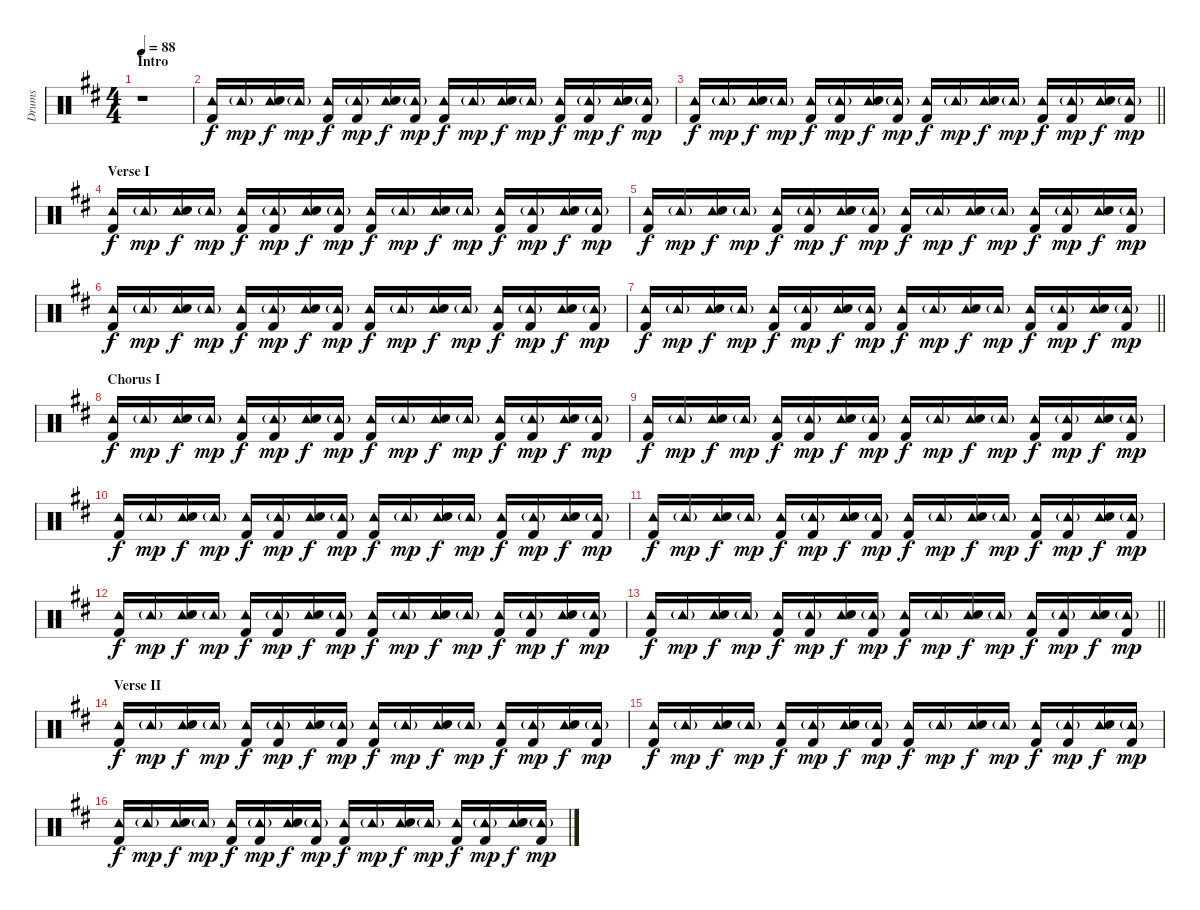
\track ("Drums" "Drums") {instrument percussion}
\staff {score}
\articulation defaults
\ts (4 4)
\section ("" "Intro")
\tempo 88
\clef neutral
\ks d
r.1{dy f} |
("Tambourine (hit)" "Kick (hit) 2").16 "Tambourine (hit)"{g}.16{dy mp} ("Tambourine (hit)" "Snare (hit) 2").16{dy f} "Tambourine (hit)"{g}.16{dy mp} ("Tambourine (hit)" "Kick (hit) 2").16{dy f} ("Tambourine (hit)"{g} "Kick (hit) 2").16{dy mp} ("Tambourine (hit)" "Snare (hit) 2").16{dy f} ("Tambourine (hit)"{g} "Kick (hit) 2").16{dy mp} ("Tambourine (hit)" "Kick (hit) 2").16{dy f} "Tambourine (hit)"{g}.16{dy mp} ("Tambourine (hit)" "Snare (hit) 2").16{dy f} "Tambourine (hit)"{g}.16{dy mp} ("Tambourine (hit)" "Kick (hit) 2").16{dy f} ("Tambourine (hit)"{g} "Kick (hit) 2").16{dy mp} ("Tambourine (hit)" "Snare (hit) 2").16{dy f} ("Tambourine (hit)"{g} "Kick (hit) 2").16{dy mp} |
\barLineRight lightlight
("Tambourine (hit)" "Kick (hit) 2").16{dy f} "Tambourine (hit)"{g}.16{dy mp} ("Tambourine (hit)" "Snare (hit) 2").16{dy f} "Tambourine (hit)"{g}.16{dy mp} ("Tambourine (hit)" "Kick (hit) 2").16{dy f} ("Tambourine (hit)"{g} "Kick (hit) 2").16{dy mp} ("Tambourine (hit)" "Snare (hit) 2").16{dy f} ("Tambourine (hit)"{g} "Kick (hit) 2").16{dy mp} ("Tambourine (hit)" "Kick (hit) 2").16{dy f} "Tambourine (hit)"{g}.16{dy mp} ("Tambourine (hit)" "Snare (hit) 2").16{dy f} "Tambourine (hit)"{g}.16{dy mp} ("Tambourine (hit)" "Kick (hit) 2").16{dy f} ("Tambourine (hit)"{g} "Kick (hit) 2").16{dy mp} ("Tambourine (hit)" "Snare (hit) 2").16{dy f} ("Tambourine (hit)"{g} "Kick (hit) 2").16{dy mp} |
\section ("" "Verse I")
("Tambourine (hit)" "Kick (hit) 2").16{dy f} "Tambourine (hit)"{g}.16{dy mp} ("Tambourine (hit)" "Snare (hit) 2").16{dy f} "Tambourine (hit)"{g}.16{dy mp} ("Tambourine (hit)" "Kick (hit) 2").16{dy f} ("Tambourine (hit)"{g} "Kick (hit) 2").16{dy mp} ("Tambourine (hit)" "Snare (hit) 2").16{dy f} ("Tambourine (hit)"{g} "Kick (hit) 2").16{dy mp} ("Tambourine (hit)" "Kick (hit) 2").16{dy f} "Tambourine (hit)"{g}.16{dy mp} ("Tambourine (hit)" "Snare (hit) 2").16{dy f} "Tambourine (hit)"{g}.16{dy mp} ("Tambourine (hit)" "Kick (hit) 2").16{dy f} ("Tambourine (hit)"{g} "Kick (hit) 2").16{dy mp} ("Tambourine (hit)" "Snare (hit) 2").16{dy f} ("Tambourine (hit)"{g} "Kick (hit) 2").16{dy mp} |
("Tambourine (hit)" "Kick (hit) 2").16{dy f} "Tambourine (hit)"{g}.16{dy mp} ("Tambourine (hit)" "Snare (hit) 2").16{dy f} "Tambourine (hit)"{g}.16{dy mp} ("Tambourine (hit)" "Kick (hit) 2").16{dy f} ("Tambourine (hit)"{g} "Kick (hit) 2").16{dy mp} ("Tambourine (hit)" "Snare (hit) 2").16{dy f} ("Tambourine (hit)"{g} "Kick (hit) 2").16{dy mp} ("Tambourine (hit)" "Kick (hit) 2").16{dy f} "Tambourine (hit)"{g}.16{dy mp} ("Tambourine (hit)" "Snare (hit) 2").16{dy f} "Tambourine (hit)"{g}.16{dy mp} ("Tambourine (hit)" "Kick (hit) 2").16{dy f} ("Tambourine (hit)"{g} "Kick (hit) 2").16{dy mp} ("Tambourine (hit)" "Snare (hit) 2").16{dy f} ("Tambourine (hit)"{g} "Kick (hit) 2").16{dy mp} |
("Tambourine (hit)" "Kick (hit) 2").16{dy f} "Tambourine (hit)"{g}.16{dy mp} ("Tambourine (hit)" "Snare (hit) 2").16{dy f} "Tambourine (hit)"{g}.16{dy mp} ("Tambourine (hit)" "Kick (hit) 2").16{dy f} ("Tambourine (hit)"{g} "Kick (hit) 2").16{dy mp} ("Tambourine (hit)" "Snare (hit) 2").16{dy f} ("Tambourine (hit)"{g} "Kick (hit) 2").16{dy mp} ("Tambourine (hit)" "Kick (hit) 2").16{dy f} "Tambourine (hit)"{g}.16{dy mp} ("Tambourine (hit)" "Snare (hit) 2").16{dy f} "Tambourine (hit)"{g}.16{dy mp} ("Tambourine (hit)" "Kick (hit) 2").16{dy f} ("Tambourine (hit)"{g} "Kick (hit) 2").16{dy mp} ("Tambourine (hit)" "Snare (hit) 2").16{dy f} ("Tambourine (hit)"{g} "Kick (hit) 2").16{dy mp} |
\barLineRight lightlight
("Tambourine (hit)" "Kick (hit) 2").16{dy f} "Tambourine (hit)"{g}.16{dy mp} ("Tambourine (hit)" "Snare (hit) 2").16{dy f} "Tambourine (hit)"{g}.16{dy mp} ("Tambourine (hit)" "Kick (hit) 2").16{dy f} ("Tambourine (hit)"{g} "Kick (hit) 2").16{dy mp} ("Tambourine (hit)" "Snare (hit) 2").16{dy f} ("Tambourine (hit)"{g} "Kick (hit) 2").16{dy mp} ("Tambourine (hit)" "Kick (hit) 2").16{dy f} "Tambourine (hit)"{g}.16{dy mp} ("Tambourine (hit)" "Snare (hit) 2").16{dy f} "Tambourine (hit)"{g}.16{dy mp} ("Tambourine (hit)" "Kick (hit) 2").16{dy f} ("Tambourine (hit)"{g} "Kick (hit) 2").16{dy mp} ("Tambourine (hit)" "Snare (hit) 2").16{dy f} ("Tambourine (hit)"{g} "Kick (hit) 2").16{dy mp} |
\section ("" "Chorus I")
("Tambourine (hit)" "Kick (hit) 2").16{dy f} "Tambourine (hit)"{g}.16{dy mp} ("Tambourine (hit)" "Snare (hit) 2").16{dy f} "Tambourine (hit)"{g}.16{dy mp} ("Tambourine (hit)" "Kick (hit) 2").16{dy f} ("Tambourine (hit)"{g} "Kick (hit) 2").16{dy mp} ("Tambourine (hit)" "Snare (hit) 2").16{dy f} ("Tambourine (hit)"{g} "Kick (hit) 2").16{dy mp} ("Tambourine (hit)" "Kick (hit) 2").16{dy f} "Tambourine (hit)"{g}.16{dy mp} ("Tambourine (hit)" "Snare (hit) 2").16{dy f} "Tambourine (hit)"{g}.16{dy mp} ("Tambourine (hit)" "Kick (hit) 2").16{dy f} ("Tambourine (hit)"{g} "Kick (hit) 2").16{dy mp} ("Tambourine (hit)" "Snare (hit) 2").16{dy f} ("Tambourine (hit)"{g} "Kick (hit) 2").16{dy mp} |
("Tambourine (hit)" "Kick (hit) 2").16{dy f} "Tambourine (hit)"{g}.16{dy mp} ("Tambourine (hit)" "Snare (hit) 2").16{dy f} "Tambourine (hit)"{g}.16{dy mp} ("Tambourine (hit)" "Kick (hit) 2").16{dy f} ("Tambourine (hit)"{g} "Kick (hit) 2").16{dy mp} ("Tambourine (hit)" "Snare (hit) 2").16{dy f} ("Tambourine (hit)"{g} "Kick (hit) 2").16{dy mp} ("Tambourine (hit)" "Kick (hit) 2").16{dy f} "Tambourine (hit)"{g}.16{dy mp} ("Tambourine (hit)" "Snare (hit) 2").16{dy f} "Tambourine (hit)"{g}.16{dy mp} ("Tambourine (hit)" "Kick (hit) 2").16{dy f} ("Tambourine (hit)"{g} "Kick (hit) 2").16{dy mp} ("Tambourine (hit)" "Snare (hit) 2").16{dy f} ("Tambourine (hit)"{g} "Kick (hit) 2").16{dy mp} |
("Tambourine (hit)" "Kick (hit) 2").16{dy f} "Tambourine (hit)"{g}.16{dy mp} ("Tambourine (hit)" "Snare (hit) 2").16{dy f} "Tambourine (hit)"{g}.16{dy mp} ("Tambourine (hit)" "Kick (hit) 2").16{dy f} ("Tambourine (hit)"{g} "Kick (hit) 2").16{dy mp} ("Tambourine (hit)" "Snare (hit) 2").16{dy f} ("Tambourine (hit)"{g} "Kick (hit) 2").16{dy mp} ("Tambourine (hit)" "Kick (hit) 2").16{dy f} "Tambourine (hit)"{g}.16{dy mp} ("Tambourine (hit)" "Snare (hit) 2").16{dy f} "Tambourine (hit)"{g}.16{dy mp} ("Tambourine (hit)" "Kick (hit) 2").16{dy f} ("Tambourine (hit)"{g} "Kick (hit) 2").16{dy mp} ("Tambourine (hit)" "Snare (hit) 2").16{dy f} ("Tambourine (hit)"{g} "Kick (hit) 2").16{dy mp} |
("Tambourine (hit)" "Kick (hit) 2").16{dy f} "Tambourine (hit)"{g}.16{dy mp} ("Tambourine (hit)" "Snare (hit) 2").16{dy f} "Tambourine (hit)"{g}.16{dy mp} ("Tambourine (hit)" "Kick (hit) 2").16{dy f} ("Tambourine (hit)"{g} "Kick (hit) 2").16{dy mp} ("Tambourine (hit)" "Snare (hit) 2").16{dy f} ("Tambourine (hit)"{g} "Kick (hit) 2").16{dy mp} ("Tambourine (hit)" "Kick (hit) 2").16{dy f} "Tambourine (hit)"{g}.16{dy mp} ("Tambourine (hit)" "Snare (hit) 2").16{dy f} "Tambourine (hit)"{g}.16{dy mp} ("Tambourine (hit)" "Kick (hit) 2").16{dy f} ("Tambourine (hit)"{g} "Kick (hit) 2").16{dy mp} ("Tambourine (hit)" "Snare (hit) 2").16{dy f} ("Tambourine (hit)"{g} "Kick (hit) 2").16{dy mp} |
("Tambourine (hit)" "Kick (hit) 2").16{dy f} "Tambourine (hit)"{g}.16{dy mp} ("Tambourine (hit)" "Snare (hit) 2").16{dy f} "Tambourine (hit)"{g}.16{dy mp} ("Tambourine (hit)" "Kick (hit) 2").16{dy f} ("Tambourine (hit)"{g} "Kick (hit) 2").16{dy mp} ("Tambourine (hit)" "Snare (hit) 2").16{dy f} ("Tambourine (hit)"{g} "Kick (hit) 2").16{dy mp} ("Tambourine (hit)" "Kick (hit) 2").16{dy f} "Tambourine (hit)"{g}.16{dy mp} ("Tambourine (hit)" "Snare (hit) 2").16{dy f} "Tambourine (hit)"{g}.16{dy mp} ("Tambourine (hit)" "Kick (hit) 2").16{dy f} ("Tambourine (hit)"{g} "Kick (hit) 2").16{dy mp} ("Tambourine (hit)" "Snare (hit) 2").16{dy f} ("Tambourine (hit)"{g} "Kick (hit) 2").16{dy mp} |
\barLineRight lightlight
("Tambourine (hit)" "Kick (hit) 2").16{dy f} "Tambourine (hit)"{g}.16{dy mp} ("Tambourine (hit)" "Snare (hit) 2").16{dy f} "Tambourine (hit)"{g}.16{dy mp} ("Tambourine (hit)" "Kick (hit) 2").16{dy f} ("Tambourine (hit)"{g} "Kick (hit) 2").16{dy mp} ("Tambourine (hit)" "Snare (hit) 2").16{dy f} ("Tambourine (hit)"{g} "Kick (hit) 2").16{dy mp} ("Tambourine (hit)" "Kick (hit) 2").16{dy f} "Tambourine (hit)"{g}.16{dy mp} ("Tambourine (hit)" "Snare (hit) 2").16{dy f} "Tambourine (hit)"{g}.16{dy mp} ("Tambourine (hit)" "Kick (hit) 2").16{dy f} ("Tambourine (hit)"{g} "Kick (hit) 2").16{dy mp} ("Tambourine (hit)" "Snare (hit) 2").16{dy f} ("Tambourine (hit)"{g} "Kick (hit) 2").16{dy mp} |
\section ("" "Verse II")
("Tambourine (hit)" "Kick (hit) 2").16{dy f} "Tambourine (hit)"{g}.16{dy mp} ("Tambourine (hit)" "Snare (hit) 2").16{dy f} "Tambourine (hit)"{g}.16{dy mp} ("Tambourine (hit)" "Kick (hit) 2").16{dy f} ("Tambourine (hit)"{g} "Kick (hit) 2").16{dy mp} ("Tambourine (hit)" "Snare (hit) 2").16{dy f} ("Tambourine (hit)"{g} "Kick (hit) 2").16{dy mp} ("Tambourine (hit)" "Kick (hit) 2").16{dy f} "Tambourine (hit)"{g}.16{dy mp} ("Tambourine (hit)" "Snare (hit) 2").16{dy f} "Tambourine (hit)"{g}.16{dy mp} ("Tambourine (hit)" "Kick (hit) 2").16{dy f} ("Tambourine (hit)"{g} "Kick (hit) 2").16{dy mp} ("Tambourine (hit)" "Snare (hit) 2").16{dy f} ("Tambourine (hit)"{g} "Kick (hit) 2").16{dy mp} |
("Tambourine (hit)" "Kick (hit) 2").16{dy f} "Tambourine (hit)"{g}.16{dy mp} ("Tambourine (hit)" "Snare (hit) 2").16{dy f} "Tambourine (hit)"{g}.16{dy mp} ("Tambourine (hit)" "Kick (hit) 2").16{dy f} ("Tambourine (hit)"{g} "Kick (hit) 2").16{dy mp} ("Tambourine (hit)" "Snare (hit) 2").16{dy f} ("Tambourine (hit)"{g} "Kick (hit) 2").16{dy mp} ("Tambourine (hit)" "Kick (hit) 2").16{dy f} "Tambourine (hit)"{g}.16{dy mp} ("Tambourine (hit)" "Snare (hit) 2").16{dy f} "Tambourine (hit)"{g}.16{dy mp} ("Tambourine (hit)" "Kick (hit) 2").16{dy f} ("Tambourine (hit)"{g} "Kick (hit) 2").16{dy mp} ("Tambourine (hit)" "Snare (hit) 2").16{dy f} ("Tambourine (hit)"{g} "Kick (hit) 2").16{dy mp} |
("Tambourine (hit)" "Kick (hit) 2").16{dy f} "Tambourine (hit)"{g}.16{dy mp} ("Tambourine (hit)" "Snare (hit) 2").16{dy f} "Tambourine (hit)"{g}.16{dy mp} ("Tambourine (hit)" "Kick (hit) 2").16{dy f} ("Tambourine (hit)"{g} "Kick (hit) 2").16{dy mp} ("Tambourine (hit)" "Snare (hit) 2").16{dy f} ("Tambourine (hit)"{g} "Kick (hit) 2").16{dy mp} ("Tambourine (hit)" "Kick (hit) 2").16{dy f} "Tambourine (hit)"{g}.16{dy mp} ("Tambourine (hit)" "Snare (hit) 2").16{dy f} "Tambourine (hit)"{g}.16{dy mp} ("Tambourine (hit)" "Kick (hit) 2").16{dy f} ("Tambourine (hit)"{g} "Kick (hit) 2").16{dy mp} ("Tambourine (hit)" "Snare (hit) 2").16{dy f} ("Tambourine (hit)"{g} "Kick (hit) 2").16{dy mp}
